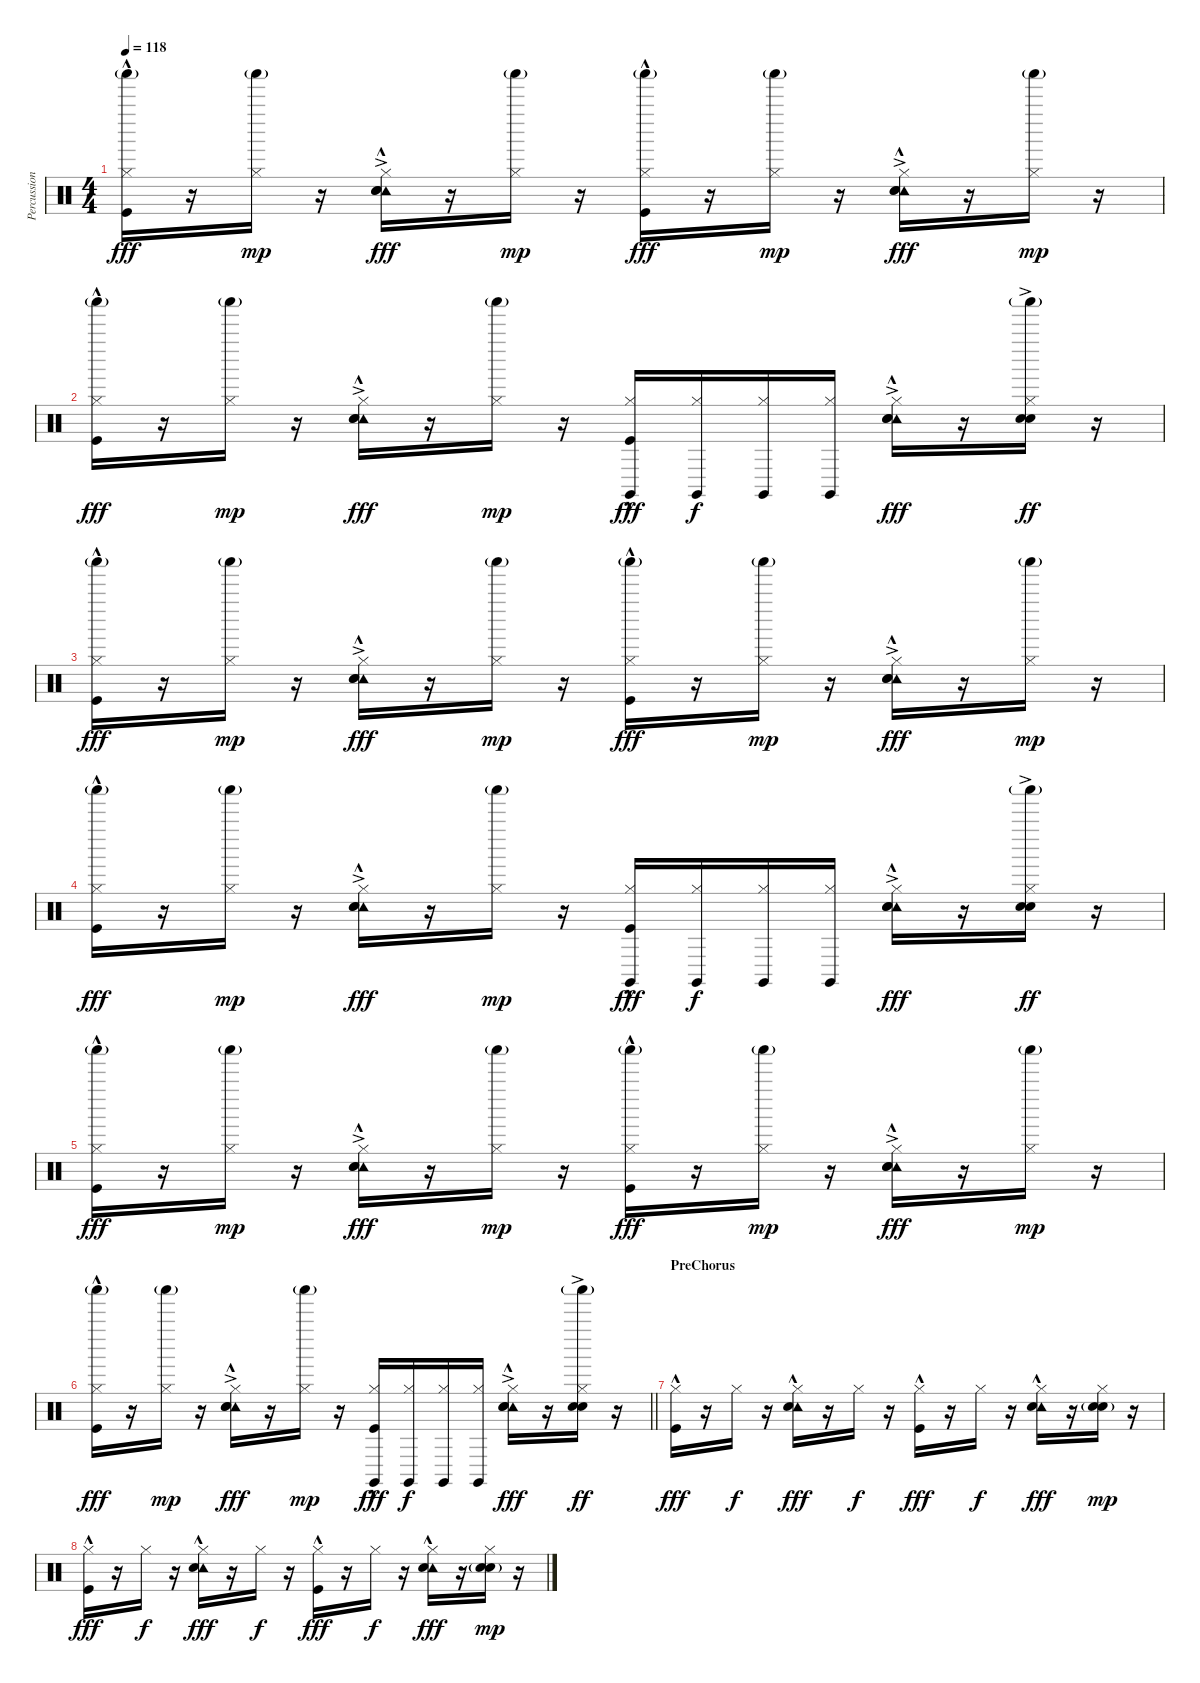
\track ("Percussion" "Percussion") {instrument percussion}
\staff {score}
\articulation defaults
\ts (4 4)
\tempo 118
\clef neutral
\ks c
("Shaker (hit)"{g} "Hi-Hat (closed)" "Kick (hit)"{hac}).16{dy fff} r.16 ("Shaker (hit)"{g} "Hi-Hat (closed)").16{dy mp} r.16 ("Tambourine (hit)"{ac} "Hi-Hat (closed)" "Hand Clap (hit)" "Snare (hit) 2"{hac}).16{dy fff} r.16 ("Shaker (hit)"{g} "Hi-Hat (closed)").16{dy mp} r.16 ("Shaker (hit)"{g} "Hi-Hat (closed)" "Kick (hit)"{hac}).16{dy fff} r.16 ("Shaker (hit)"{g} "Hi-Hat (closed)").16{dy mp} r.16 ("Tambourine (hit)"{ac} "Hi-Hat (closed)" "Hand Clap (hit)" "Snare (hit) 2"{hac}).16{dy fff} r.16 ("Shaker (hit)"{g} "Hi-Hat (closed)").16{dy mp} r.16 |
("Shaker (hit)"{g} "Hi-Hat (closed)" "Kick (hit)"{hac}).16{dy fff} r.16 ("Shaker (hit)"{g} "Hi-Hat (closed)").16{dy mp} r.16 ("Tambourine (hit)"{ac} "Hi-Hat (closed)" "Hand Clap (hit)" "Snare (hit) 2"{hac}).16{dy fff} r.16 ("Shaker (hit)"{g} "Hi-Hat (closed)").16{dy mp} r.16 ("Claves (hit)" "Hi-Hat (closed)" "Kick (hit)"{hac}).16{dy fff} ("Claves (hit)" "Hi-Hat (closed)").16{dy f} ("Claves (hit)" "Hi-Hat (closed)").16 ("Claves (hit)" "Hi-Hat (closed)").16 ("Tambourine (hit)"{ac} "Hi-Hat (closed)" "Hand Clap (hit)"{ac} "Snare (hit) 2"{hac}).16{dy fff} r.16 ("Shaker (hit)"{g} "Hi-Hat (closed)" "Hand Clap (hit)"{ac} "Snare (hit) 2").16{dy ff} r.16 |
("Shaker (hit)"{g} "Hi-Hat (closed)" "Kick (hit)"{hac}).16{dy fff} r.16 ("Shaker (hit)"{g} "Hi-Hat (closed)").16{dy mp} r.16 ("Tambourine (hit)"{ac} "Hi-Hat (closed)" "Hand Clap (hit)" "Snare (hit) 2"{hac}).16{dy fff} r.16 ("Shaker (hit)"{g} "Hi-Hat (closed)").16{dy mp} r.16 ("Shaker (hit)"{g} "Hi-Hat (closed)" "Kick (hit)"{hac}).16{dy fff} r.16 ("Shaker (hit)"{g} "Hi-Hat (closed)").16{dy mp} r.16 ("Tambourine (hit)"{ac} "Hi-Hat (closed)" "Hand Clap (hit)" "Snare (hit) 2"{hac}).16{dy fff} r.16 ("Shaker (hit)"{g} "Hi-Hat (closed)").16{dy mp} r.16 |
("Shaker (hit)"{g} "Hi-Hat (closed)" "Kick (hit)"{hac}).16{dy fff} r.16 ("Shaker (hit)"{g} "Hi-Hat (closed)").16{dy mp} r.16 ("Tambourine (hit)"{ac} "Hi-Hat (closed)" "Hand Clap (hit)" "Snare (hit) 2"{hac}).16{dy fff} r.16 ("Shaker (hit)"{g} "Hi-Hat (closed)").16{dy mp} r.16 ("Claves (hit)" "Hi-Hat (closed)" "Kick (hit)"{hac}).16{dy fff} ("Claves (hit)" "Hi-Hat (closed)").16{dy f} ("Claves (hit)" "Hi-Hat (closed)").16 ("Claves (hit)" "Hi-Hat (closed)").16 ("Tambourine (hit)"{ac} "Hi-Hat (closed)" "Hand Clap (hit)"{ac} "Snare (hit) 2"{hac}).16{dy fff} r.16 ("Shaker (hit)"{g} "Hi-Hat (closed)" "Hand Clap (hit)"{ac} "Snare (hit) 2").16{dy ff} r.16 |
("Shaker (hit)"{g} "Hi-Hat (closed)" "Kick (hit)"{hac}).16{dy fff} r.16 ("Shaker (hit)"{g} "Hi-Hat (closed)").16{dy mp} r.16 ("Tambourine (hit)"{ac} "Hi-Hat (closed)" "Hand Clap (hit)" "Snare (hit) 2"{hac}).16{dy fff} r.16 ("Shaker (hit)"{g} "Hi-Hat (closed)").16{dy mp} r.16 ("Shaker (hit)"{g} "Hi-Hat (closed)" "Kick (hit)"{hac}).16{dy fff} r.16 ("Shaker (hit)"{g} "Hi-Hat (closed)").16{dy mp} r.16 ("Tambourine (hit)"{ac} "Hi-Hat (closed)" "Hand Clap (hit)" "Snare (hit) 2"{hac}).16{dy fff} r.16 ("Shaker (hit)"{g} "Hi-Hat (closed)").16{dy mp} r.16 |
\barLineRight lightlight
("Shaker (hit)"{g} "Hi-Hat (closed)" "Kick (hit)"{hac}).16{dy fff} r.16 ("Shaker (hit)"{g} "Hi-Hat (closed)").16{dy mp} r.16 ("Tambourine (hit)"{ac} "Hi-Hat (closed)" "Hand Clap (hit)" "Snare (hit) 2"{hac}).16{dy fff} r.16 ("Shaker (hit)"{g} "Hi-Hat (closed)").16{dy mp} r.16 ("Claves (hit)" "Hi-Hat (closed)" "Kick (hit)"{hac}).16{dy fff} ("Claves (hit)" "Hi-Hat (closed)").16{dy f} ("Claves (hit)" "Hi-Hat (closed)").16 ("Claves (hit)" "Hi-Hat (closed)").16 ("Tambourine (hit)"{ac} "Hi-Hat (closed)" "Hand Clap (hit)"{ac} "Snare (hit) 2"{hac}).16{dy fff} r.16 ("Shaker (hit)"{g} "Hi-Hat (closed)" "Hand Clap (hit)"{ac} "Snare (hit) 2").16{dy ff} r.16 |
\section ("" "PreChorus")
("Hi-Hat (closed)" "Kick (hit)"{hac}).16{dy fff} r.16 "Hi-Hat (closed)".16{dy f} r.16 ("Tambourine (hit)" "Hi-Hat (closed)" "Snare (hit) 2"{hac}).16{dy fff} r.16 "Hi-Hat (closed)".16{dy f} r.16 ("Hi-Hat (closed)" "Kick (hit)"{hac}).16{dy fff} r.16 "Hi-Hat (closed)".16{dy f} r.16 ("Tambourine (hit)" "Hi-Hat (closed)" "Snare (hit) 2"{hac}).16{dy fff} r.16 ("Hi-Hat (closed)" "Hand Clap (hit)"{g} "Snare (hit) 2"{g}).16{dy mp} r.16 |
("Hi-Hat (closed)" "Kick (hit)"{hac}).16{dy fff} r.16 "Hi-Hat (closed)".16{dy f} r.16 ("Tambourine (hit)" "Hi-Hat (closed)" "Snare (hit) 2"{hac}).16{dy fff} r.16 "Hi-Hat (closed)".16{dy f} r.16 ("Hi-Hat (closed)" "Kick (hit)"{hac}).16{dy fff} r.16 "Hi-Hat (closed)".16{dy f} r.16 ("Tambourine (hit)" "Hi-Hat (closed)" "Snare (hit) 2"{hac}).16{dy fff} r.16 ("Hi-Hat (closed)" "Hand Clap (hit)" "Snare (hit) 2"{g}).16{dy mp} r.16
